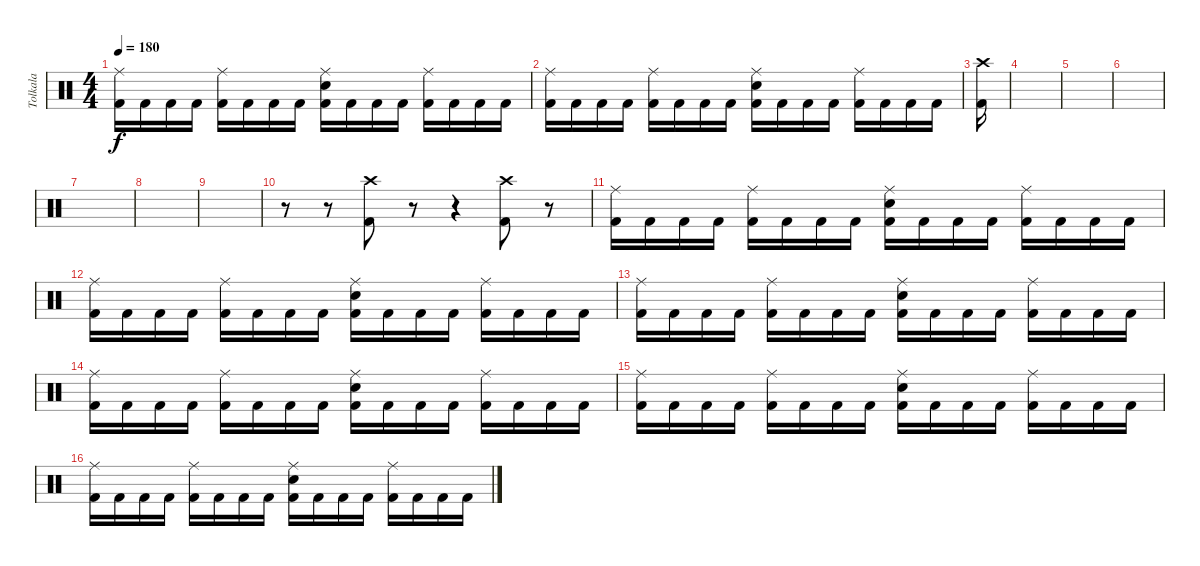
\track ("Tolkala" "Tolkala") {instrument percussion}
\staff {score}
\articulation defaults
\ts (4 4)
\tempo 180
\clef neutral
\ks c
("Ride (middle)" "Kick (hit) 2").16{dy f} "Kick (hit) 2".16 "Kick (hit) 2".16 "Kick (hit) 2".16 ("Ride (middle)" "Kick (hit) 2").16 "Kick (hit) 2".16 "Kick (hit) 2".16 "Kick (hit) 2".16 ("Ride (middle)" "Electric Snare (hit)" "Kick (hit) 2").16 "Kick (hit) 2".16 "Kick (hit) 2".16 "Kick (hit) 2".16 ("Ride (middle)" "Kick (hit) 2").16 "Kick (hit) 2".16 "Kick (hit) 2".16 "Kick (hit) 2".16 |
("Ride (middle)" "Kick (hit) 2").16 "Kick (hit) 2".16 "Kick (hit) 2".16 "Kick (hit) 2".16 ("Ride (middle)" "Kick (hit) 2").16 "Kick (hit) 2".16 "Kick (hit) 2".16 "Kick (hit) 2".16 ("Ride (middle)" "Electric Snare (hit)" "Kick (hit) 2").16 "Kick (hit) 2".16 "Kick (hit) 2".16 "Kick (hit) 2".16 ("Ride (middle)" "Kick (hit) 2").16 "Kick (hit) 2".16 "Kick (hit) 2".16 "Kick (hit) 2".16 |
("Crash high (hit)" "Kick (hit) 2").16 |
|
|
|
|
|
|
r.8 r.8 ("Crash high (hit)" "Kick (hit) 2").8 r.8 r.4 ("Crash high (hit)" "Kick (hit) 2").8 r.8 |
("Ride (middle)" "Kick (hit) 2").16 "Kick (hit) 2".16 "Kick (hit) 2".16 "Kick (hit) 2".16 ("Ride (middle)" "Kick (hit) 2").16 "Kick (hit) 2".16 "Kick (hit) 2".16 "Kick (hit) 2".16 ("Ride (middle)" "Electric Snare (hit)" "Kick (hit) 2").16 "Kick (hit) 2".16 "Kick (hit) 2".16 "Kick (hit) 2".16 ("Ride (middle)" "Kick (hit) 2").16 "Kick (hit) 2".16 "Kick (hit) 2".16 "Kick (hit) 2".16 |
("Ride (middle)" "Kick (hit) 2").16 "Kick (hit) 2".16 "Kick (hit) 2".16 "Kick (hit) 2".16 ("Ride (middle)" "Kick (hit) 2").16 "Kick (hit) 2".16 "Kick (hit) 2".16 "Kick (hit) 2".16 ("Ride (middle)" "Electric Snare (hit)" "Kick (hit) 2").16 "Kick (hit) 2".16 "Kick (hit) 2".16 "Kick (hit) 2".16 ("Ride (middle)" "Kick (hit) 2").16 "Kick (hit) 2".16 "Kick (hit) 2".16 "Kick (hit) 2".16 |
("Ride (middle)" "Kick (hit) 2").16 "Kick (hit) 2".16 "Kick (hit) 2".16 "Kick (hit) 2".16 ("Ride (middle)" "Kick (hit) 2").16 "Kick (hit) 2".16 "Kick (hit) 2".16 "Kick (hit) 2".16 ("Ride (middle)" "Electric Snare (hit)" "Kick (hit) 2").16 "Kick (hit) 2".16 "Kick (hit) 2".16 "Kick (hit) 2".16 ("Ride (middle)" "Kick (hit) 2").16 "Kick (hit) 2".16 "Kick (hit) 2".16 "Kick (hit) 2".16 |
("Ride (middle)" "Kick (hit) 2").16 "Kick (hit) 2".16 "Kick (hit) 2".16 "Kick (hit) 2".16 ("Ride (middle)" "Kick (hit) 2").16 "Kick (hit) 2".16 "Kick (hit) 2".16 "Kick (hit) 2".16 ("Ride (middle)" "Electric Snare (hit)" "Kick (hit) 2").16 "Kick (hit) 2".16 "Kick (hit) 2".16 "Kick (hit) 2".16 ("Ride (middle)" "Kick (hit) 2").16 "Kick (hit) 2".16 "Kick (hit) 2".16 "Kick (hit) 2".16 |
("Ride (middle)" "Kick (hit) 2").16 "Kick (hit) 2".16 "Kick (hit) 2".16 "Kick (hit) 2".16 ("Ride (middle)" "Kick (hit) 2").16 "Kick (hit) 2".16 "Kick (hit) 2".16 "Kick (hit) 2".16 ("Ride (middle)" "Electric Snare (hit)" "Kick (hit) 2").16 "Kick (hit) 2".16 "Kick (hit) 2".16 "Kick (hit) 2".16 ("Ride (middle)" "Kick (hit) 2").16 "Kick (hit) 2".16 "Kick (hit) 2".16 "Kick (hit) 2".16 |
("Ride (middle)" "Kick (hit) 2").16 "Kick (hit) 2".16 "Kick (hit) 2".16 "Kick (hit) 2".16 ("Ride (middle)" "Kick (hit) 2").16 "Kick (hit) 2".16 "Kick (hit) 2".16 "Kick (hit) 2".16 ("Ride (middle)" "Electric Snare (hit)" "Kick (hit) 2").16 "Kick (hit) 2".16 "Kick (hit) 2".16 "Kick (hit) 2".16 ("Ride (middle)" "Kick (hit) 2").16 "Kick (hit) 2".16 "Kick (hit) 2".16 "Kick (hit) 2".16
